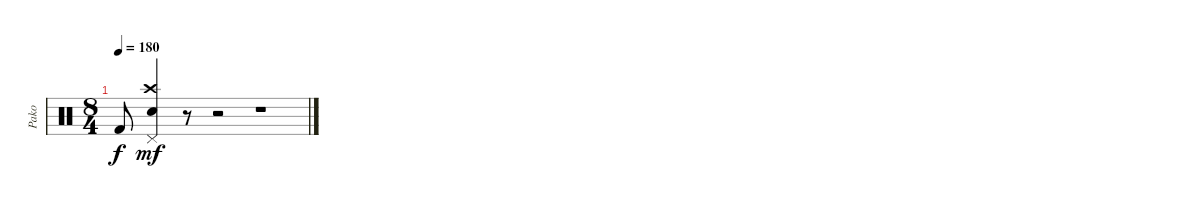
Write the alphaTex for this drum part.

\track ("Pako" "Pako") {instrument percussion}
\staff {score}
\articulation defaults
\ts (8 4)
\tempo 180
\clef neutral
\ks c "Kick (hit) 2".8{dy f}
("Electric Snare (hit)" "Crash high (hit)" "Pedal Hi-Hat (hit)").4{dy mf} r.8 r.2 r.1
